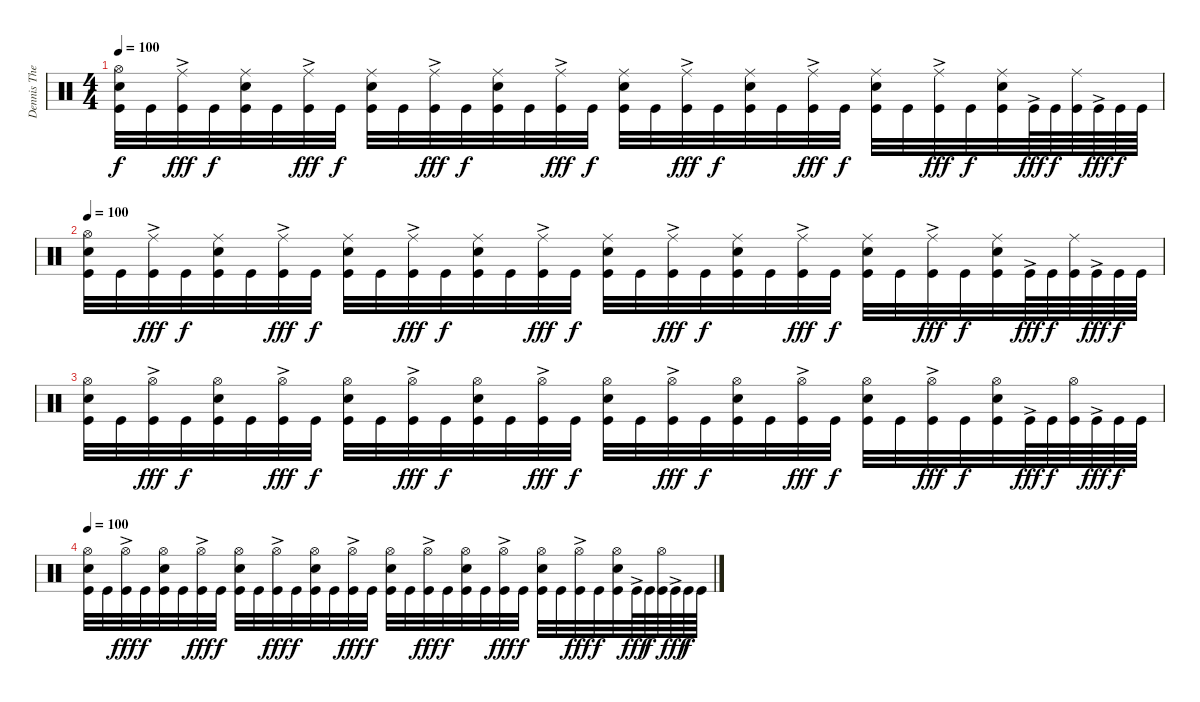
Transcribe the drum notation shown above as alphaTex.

\track ("Dennis The Menace" "Dennis The") {instrument percussion}
\staff {score}
\articulation defaults
\ts (4 4)
\tempo 100
\clef neutral
\ks c
("Hi-Hat (open)" "Electric Snare (hit)" "Kick (hit)").32{dy f} "Kick (hit)".32 ("Ride (middle)" "Kick (hit)"{ac}).32{dy fff} "Kick (hit)".32{dy f} ("Ride (middle)" "Electric Snare (hit)" "Kick (hit)").32 "Kick (hit)".32 ("Ride (middle)" "Kick (hit)"{ac}).32{dy fff} "Kick (hit)".32{dy f} ("Ride (middle)" "Electric Snare (hit)" "Kick (hit)").32 "Kick (hit)".32 ("Ride (middle)" "Kick (hit)"{ac}).32{dy fff} "Kick (hit)".32{dy f} ("Ride (middle)" "Electric Snare (hit)" "Kick (hit)").32 "Kick (hit)".32 ("Ride (middle)" "Kick (hit)"{ac}).32{dy fff} "Kick (hit)".32{dy f} ("Ride (middle)" "Electric Snare (hit)" "Kick (hit)").32 "Kick (hit)".32 ("Ride (middle)" "Kick (hit)"{ac}).32{dy fff} "Kick (hit)".32{dy f} ("Ride (middle)" "Electric Snare (hit)" "Kick (hit)").32 "Kick (hit)".32 ("Ride (middle)" "Kick (hit)"{ac}).32{dy fff} "Kick (hit)".32{dy f} ("Ride (middle)" "Electric Snare (hit)" "Kick (hit)").32 "Kick (hit)".32 ("Ride (middle)" "Kick (hit)"{ac}).32{dy fff} "Kick (hit)".32{dy f} ("Ride (middle)" "Electric Snare (hit)" "Kick (hit)").32 "Kick (hit)"{ac}.64{dy fff} "Kick (hit)".64{dy f} ("Ride (middle)" "Kick (hit)").64 "Kick (hit)"{ac}.64{dy fff} "Kick (hit)".64{dy f} "Kick (hit)".64 |
\tempo 100
("Hi-Hat (open)" "Electric Snare (hit)" "Kick (hit)").32 "Kick (hit)".32 ("Ride (middle)" "Kick (hit)"{ac}).32{dy fff} "Kick (hit)".32{dy f} ("Ride (middle)" "Electric Snare (hit)" "Kick (hit)").32 "Kick (hit)".32 ("Ride (middle)" "Kick (hit)"{ac}).32{dy fff} "Kick (hit)".32{dy f} ("Ride (middle)" "Electric Snare (hit)" "Kick (hit)").32 "Kick (hit)".32 ("Ride (middle)" "Kick (hit)"{ac}).32{dy fff} "Kick (hit)".32{dy f} ("Ride (middle)" "Electric Snare (hit)" "Kick (hit)").32 "Kick (hit)".32 ("Ride (middle)" "Kick (hit)"{ac}).32{dy fff} "Kick (hit)".32{dy f} ("Ride (middle)" "Electric Snare (hit)" "Kick (hit)").32 "Kick (hit)".32 ("Ride (middle)" "Kick (hit)"{ac}).32{dy fff} "Kick (hit)".32{dy f} ("Ride (middle)" "Electric Snare (hit)" "Kick (hit)").32 "Kick (hit)".32 ("Ride (middle)" "Kick (hit)"{ac}).32{dy fff} "Kick (hit)".32{dy f} ("Ride (middle)" "Electric Snare (hit)" "Kick (hit)").32 "Kick (hit)".32 ("Ride (middle)" "Kick (hit)"{ac}).32{dy fff} "Kick (hit)".32{dy f} ("Ride (middle)" "Electric Snare (hit)" "Kick (hit)").32 "Kick (hit)"{ac}.64{dy fff} "Kick (hit)".64{dy f} ("Ride (middle)" "Kick (hit)").64 "Kick (hit)"{ac}.64{dy fff} "Kick (hit)".64{dy f} "Kick (hit)".64 |
("Hi-Hat (open)" "Electric Snare (hit)" "Kick (hit)").32 "Kick (hit)".32 ("Hi-Hat (open)" "Kick (hit)"{ac}).32{dy fff} "Kick (hit)".32{dy f} ("Hi-Hat (open)" "Electric Snare (hit)" "Kick (hit)").32 "Kick (hit)".32 ("Hi-Hat (open)" "Kick (hit)"{ac}).32{dy fff} "Kick (hit)".32{dy f} ("Hi-Hat (open)" "Electric Snare (hit)" "Kick (hit)").32 "Kick (hit)".32 ("Hi-Hat (open)" "Kick (hit)"{ac}).32{dy fff} "Kick (hit)".32{dy f} ("Hi-Hat (open)" "Electric Snare (hit)" "Kick (hit)").32 "Kick (hit)".32 ("Hi-Hat (open)" "Kick (hit)"{ac}).32{dy fff} "Kick (hit)".32{dy f} ("Hi-Hat (open)" "Electric Snare (hit)" "Kick (hit)").32 "Kick (hit)".32 ("Hi-Hat (open)" "Kick (hit)"{ac}).32{dy fff} "Kick (hit)".32{dy f} ("Hi-Hat (open)" "Electric Snare (hit)" "Kick (hit)").32 "Kick (hit)".32 ("Hi-Hat (open)" "Kick (hit)"{ac}).32{dy fff} "Kick (hit)".32{dy f} ("Hi-Hat (open)" "Electric Snare (hit)" "Kick (hit)").32 "Kick (hit)".32 ("Hi-Hat (open)" "Kick (hit)"{ac}).32{dy fff} "Kick (hit)".32{dy f} ("Hi-Hat (open)" "Electric Snare (hit)" "Kick (hit)").32 "Kick (hit)"{ac}.64{dy fff} "Kick (hit)".64{dy f} ("Hi-Hat (open)" "Kick (hit)").64 "Kick (hit)"{ac}.64{dy fff} "Kick (hit)".64{dy f} "Kick (hit)".64 |
\tempo 100
("Hi-Hat (open)" "Electric Snare (hit)" "Kick (hit)").32 "Kick (hit)".32 ("Hi-Hat (open)" "Kick (hit)"{ac}).32{dy fff} "Kick (hit)".32{dy f} ("Hi-Hat (open)" "Electric Snare (hit)" "Kick (hit)").32 "Kick (hit)".32 ("Hi-Hat (open)" "Kick (hit)"{ac}).32{dy fff} "Kick (hit)".32{dy f} ("Hi-Hat (open)" "Electric Snare (hit)" "Kick (hit)").32 "Kick (hit)".32 ("Hi-Hat (open)" "Kick (hit)"{ac}).32{dy fff} "Kick (hit)".32{dy f} ("Hi-Hat (open)" "Electric Snare (hit)" "Kick (hit)").32 "Kick (hit)".32 ("Hi-Hat (open)" "Kick (hit)"{ac}).32{dy fff} "Kick (hit)".32{dy f} ("Hi-Hat (open)" "Electric Snare (hit)" "Kick (hit)").32 "Kick (hit)".32 ("Hi-Hat (open)" "Kick (hit)"{ac}).32{dy fff} "Kick (hit)".32{dy f} ("Hi-Hat (open)" "Electric Snare (hit)" "Kick (hit)").32 "Kick (hit)".32 ("Hi-Hat (open)" "Kick (hit)"{ac}).32{dy fff} "Kick (hit)".32{dy f} ("Hi-Hat (open)" "Electric Snare (hit)" "Kick (hit)").32 "Kick (hit)".32 ("Hi-Hat (open)" "Kick (hit)"{ac}).32{dy fff} "Kick (hit)".32{dy f} ("Hi-Hat (open)" "Electric Snare (hit)" "Kick (hit)").32 "Kick (hit)"{ac}.64{dy fff} "Kick (hit)".64{dy f} ("Hi-Hat (open)" "Kick (hit)").64 "Kick (hit)"{ac}.64{dy fff} "Kick (hit)".64{dy f} "Kick (hit)".64
